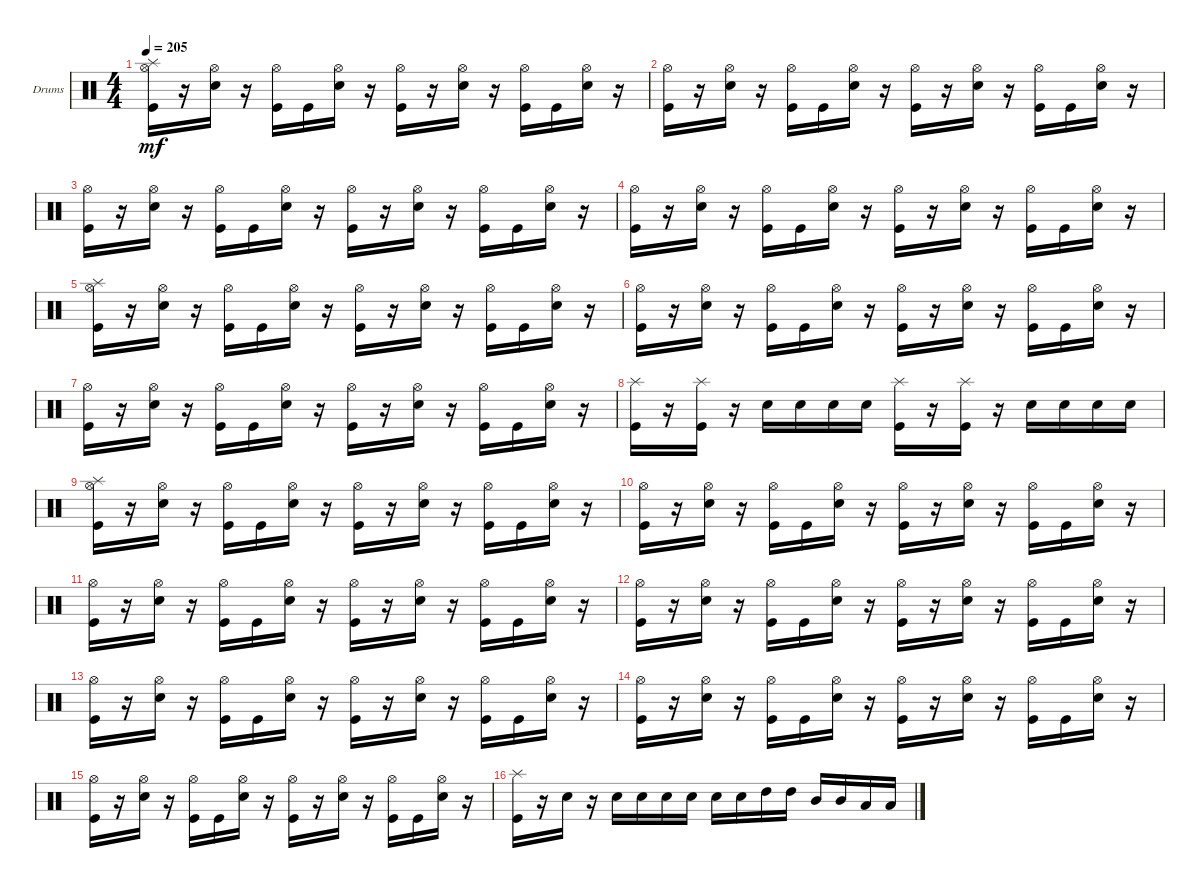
\defaultSystemsLayout 4
\bracketExtendMode groupsimilarinstruments
\firstSystemTrackNameOrientation horizontal
\otherSystemsTrackNameOrientation horizontal
\track ("Drumkit" "Drums") {instrument percussion}
\staff {score}
\articulation defaults
\ts (4 4)
\tempo 205
\clef neutral
\ks c
("Kick (hit)" "Hi-Hat (open)" "Splash (hit)").16{dy mf} r.16 ("Snare (hit) 2" "Hi-Hat (open)").16 r.16 ("Kick (hit)" "Hi-Hat (open)").16 "Kick (hit)".16 ("Snare (hit) 2" "Hi-Hat (open)").16 r.16 ("Kick (hit)" "Hi-Hat (open)").16 r.16 ("Snare (hit) 2" "Hi-Hat (open)").16 r.16 ("Kick (hit)" "Hi-Hat (open)").16 "Kick (hit)".16 ("Snare (hit) 2" "Hi-Hat (open)").16 r.16 |
("Kick (hit)" "Hi-Hat (open)").16 r.16 ("Snare (hit) 2" "Hi-Hat (open)").16 r.16 ("Kick (hit)" "Hi-Hat (open)").16 "Kick (hit)".16 ("Snare (hit) 2" "Hi-Hat (open)").16 r.16 ("Kick (hit)" "Hi-Hat (open)").16 r.16 ("Snare (hit) 2" "Hi-Hat (open)").16 r.16 ("Kick (hit)" "Hi-Hat (open)").16 "Kick (hit)".16 ("Snare (hit) 2" "Hi-Hat (open)").16 r.16 |
("Kick (hit)" "Hi-Hat (open)").16 r.16 ("Snare (hit) 2" "Hi-Hat (open)").16 r.16 ("Kick (hit)" "Hi-Hat (open)").16 "Kick (hit)".16 ("Snare (hit) 2" "Hi-Hat (open)").16 r.16 ("Kick (hit)" "Hi-Hat (open)").16 r.16 ("Snare (hit) 2" "Hi-Hat (open)").16 r.16 ("Kick (hit)" "Hi-Hat (open)").16 "Kick (hit)".16 ("Snare (hit) 2" "Hi-Hat (open)").16 r.16 |
("Kick (hit)" "Hi-Hat (open)").16 r.16 ("Snare (hit) 2" "Hi-Hat (open)").16 r.16 ("Kick (hit)" "Hi-Hat (open)").16 "Kick (hit)".16 ("Snare (hit) 2" "Hi-Hat (open)").16 r.16 ("Kick (hit)" "Hi-Hat (open)").16 r.16 ("Snare (hit) 2" "Hi-Hat (open)").16 r.16 ("Kick (hit)" "Hi-Hat (open)").16 "Kick (hit)".16 ("Snare (hit) 2" "Hi-Hat (open)").16 r.16 |
("Kick (hit)" "Hi-Hat (open)" "Splash (hit)").16 r.16 ("Snare (hit) 2" "Hi-Hat (open)").16 r.16 ("Kick (hit)" "Hi-Hat (open)").16 "Kick (hit)".16 ("Snare (hit) 2" "Hi-Hat (open)").16 r.16 ("Kick (hit)" "Hi-Hat (open)").16 r.16 ("Snare (hit) 2" "Hi-Hat (open)").16 r.16 ("Kick (hit)" "Hi-Hat (open)").16 "Kick (hit)".16 ("Snare (hit) 2" "Hi-Hat (open)").16 r.16 |
("Kick (hit)" "Hi-Hat (open)").16 r.16 ("Snare (hit) 2" "Hi-Hat (open)").16 r.16 ("Kick (hit)" "Hi-Hat (open)").16 "Kick (hit)".16 ("Snare (hit) 2" "Hi-Hat (open)").16 r.16 ("Kick (hit)" "Hi-Hat (open)").16 r.16 ("Snare (hit) 2" "Hi-Hat (open)").16 r.16 ("Kick (hit)" "Hi-Hat (open)").16 "Kick (hit)".16 ("Snare (hit) 2" "Hi-Hat (open)").16 r.16 |
("Kick (hit)" "Hi-Hat (open)").16 r.16 ("Snare (hit) 2" "Hi-Hat (open)").16 r.16 ("Kick (hit)" "Hi-Hat (open)").16 "Kick (hit)".16 ("Snare (hit) 2" "Hi-Hat (open)").16 r.16 ("Kick (hit)" "Hi-Hat (open)").16 r.16 ("Snare (hit) 2" "Hi-Hat (open)").16 r.16 ("Kick (hit)" "Hi-Hat (open)").16 "Kick (hit)".16 ("Snare (hit) 2" "Hi-Hat (open)").16 r.16 |
("Kick (hit)" "Splash (hit)").16 r.16 ("Kick (hit)" "Splash (hit)").16 r.16 "Snare (hit) 2".16 "Snare (hit) 2".16 "Snare (hit) 2".16 "Snare (hit) 2".16 ("Kick (hit)" "Splash (hit)").16 r.16 ("Kick (hit)" "Splash (hit)").16 r.16 "Snare (hit) 2".16 "Snare (hit) 2".16 "Snare (hit) 2".16 "Snare (hit) 2".16 |
("Kick (hit)" "Hi-Hat (open)" "Splash (hit)").16 r.16 ("Snare (hit) 2" "Hi-Hat (open)").16 r.16 ("Kick (hit)" "Hi-Hat (open)").16 "Kick (hit)".16 ("Snare (hit) 2" "Hi-Hat (open)").16 r.16 ("Kick (hit)" "Hi-Hat (open)").16 r.16 ("Snare (hit) 2" "Hi-Hat (open)").16 r.16 ("Kick (hit)" "Hi-Hat (open)").16 "Kick (hit)".16 ("Snare (hit) 2" "Hi-Hat (open)").16 r.16 |
("Kick (hit)" "Hi-Hat (open)").16 r.16 ("Snare (hit) 2" "Hi-Hat (open)").16 r.16 ("Kick (hit)" "Hi-Hat (open)").16 "Kick (hit)".16 ("Snare (hit) 2" "Hi-Hat (open)").16 r.16 ("Kick (hit)" "Hi-Hat (open)").16 r.16 ("Snare (hit) 2" "Hi-Hat (open)").16 r.16 ("Kick (hit)" "Hi-Hat (open)").16 "Kick (hit)".16 ("Snare (hit) 2" "Hi-Hat (open)").16 r.16 |
("Kick (hit)" "Hi-Hat (open)").16 r.16 ("Snare (hit) 2" "Hi-Hat (open)").16 r.16 ("Kick (hit)" "Hi-Hat (open)").16 "Kick (hit)".16 ("Snare (hit) 2" "Hi-Hat (open)").16 r.16 ("Kick (hit)" "Hi-Hat (open)").16 r.16 ("Snare (hit) 2" "Hi-Hat (open)").16 r.16 ("Kick (hit)" "Hi-Hat (open)").16 "Kick (hit)".16 ("Snare (hit) 2" "Hi-Hat (open)").16 r.16 |
("Kick (hit)" "Hi-Hat (open)").16 r.16 ("Snare (hit) 2" "Hi-Hat (open)").16 r.16 ("Kick (hit)" "Hi-Hat (open)").16 "Kick (hit)".16 ("Snare (hit) 2" "Hi-Hat (open)").16 r.16 ("Kick (hit)" "Hi-Hat (open)").16 r.16 ("Snare (hit) 2" "Hi-Hat (open)").16 r.16 ("Kick (hit)" "Hi-Hat (open)").16 "Kick (hit)".16 ("Snare (hit) 2" "Hi-Hat (open)").16 r.16 |
("Kick (hit)" "Hi-Hat (open)").16 r.16 ("Snare (hit) 2" "Hi-Hat (open)").16 r.16 ("Kick (hit)" "Hi-Hat (open)").16 "Kick (hit)".16 ("Snare (hit) 2" "Hi-Hat (open)").16 r.16 ("Kick (hit)" "Hi-Hat (open)").16 r.16 ("Snare (hit) 2" "Hi-Hat (open)").16 r.16 ("Kick (hit)" "Hi-Hat (open)").16 "Kick (hit)".16 ("Snare (hit) 2" "Hi-Hat (open)").16 r.16 |
("Kick (hit)" "Hi-Hat (open)").16 r.16 ("Snare (hit) 2" "Hi-Hat (open)").16 r.16 ("Kick (hit)" "Hi-Hat (open)").16 "Kick (hit)".16 ("Snare (hit) 2" "Hi-Hat (open)").16 r.16 ("Kick (hit)" "Hi-Hat (open)").16 r.16 ("Snare (hit) 2" "Hi-Hat (open)").16 r.16 ("Kick (hit)" "Hi-Hat (open)").16 "Kick (hit)".16 ("Snare (hit) 2" "Hi-Hat (open)").16 r.16 |
("Kick (hit)" "Hi-Hat (open)").16 r.16 ("Snare (hit) 2" "Hi-Hat (open)").16 r.16 ("Kick (hit)" "Hi-Hat (open)").16 "Kick (hit)".16 ("Snare (hit) 2" "Hi-Hat (open)").16 r.16 ("Kick (hit)" "Hi-Hat (open)").16 r.16 ("Snare (hit) 2" "Hi-Hat (open)").16 r.16 ("Kick (hit)" "Hi-Hat (open)").16 "Kick (hit)".16 ("Snare (hit) 2" "Hi-Hat (open)").16 r.16 |
("Kick (hit)" "Splash (hit)").16 r.16 "Snare (hit) 2".16 r.16 "Snare (hit) 2".16 "Snare (hit) 2".16 "Snare (hit) 2".16 "Snare (hit) 2".16 "Snare (hit) 2".16 "Snare (hit) 2".16 "High Tom (hit)".16 "High Tom (hit)".16 "Mid Tom (hit)".16 "Mid Tom (hit)".16 "Low Tom (hit)".16 "Low Tom (hit)".16
